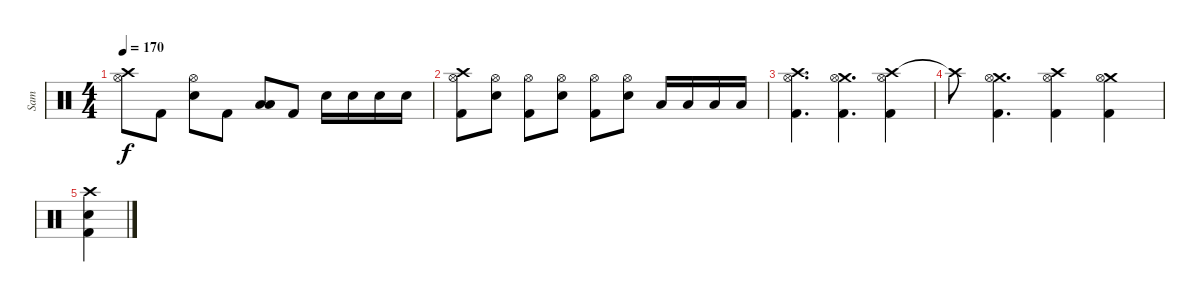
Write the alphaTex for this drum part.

\track ("Sam" "Sam") {instrument percussion}
\staff {score}
\articulation defaults
\ts (4 4)
\tempo 170
\clef neutral
\ks c
("Hi-Hat (open)" "Crash high (hit)").8{dy f} "Kick (hit) 2".8 ("Hi-Hat (open)" "Electric Snare (hit)").8 "Kick (hit) 2".8 ("Low Tom (hit)" "Low Floor Tom (hit)").8 "Kick (hit) 2".8 "Electric Snare (hit)".16 "Electric Snare (hit)".16 "Electric Snare (hit)".16 "Electric Snare (hit)".16 |
("Hi-Hat (open)" "Crash high (hit)" "Kick (hit) 2").8 ("Hi-Hat (open)" "Electric Snare (hit)").8 ("Hi-Hat (open)" "Kick (hit) 2").8 ("Hi-Hat (open)" "Electric Snare (hit)").8 ("Hi-Hat (open)" "Kick (hit) 2").8 ("Hi-Hat (open)" "Electric Snare (hit)").8 "Low Tom (hit)".16 "Low Tom (hit)".16 "Low Floor Tom (hit)".16 "Low Floor Tom (hit)".16 |
("Crash high (hit)" "Hi-Hat (open)" "Kick (hit) 2").4{d} ("Crash medium (hit)" "Hi-Hat (open)" "Kick (hit) 2").4{d} ("Crash high (hit)" "Hi-Hat (open)" "Kick (hit) 2").4 |
"Crash high (hit)"{t}.8 ("Crash medium (hit)" "Hi-Hat (open)" "Kick (hit) 2").4{d} ("Crash high (hit)" "Hi-Hat (open)" "Kick (hit) 2").4 ("Crash medium (hit)" "Hi-Hat (open)" "Kick (hit) 2").4 |
("Crash high (hit)" "Electric Snare (hit)" "Kick (hit) 2").4
